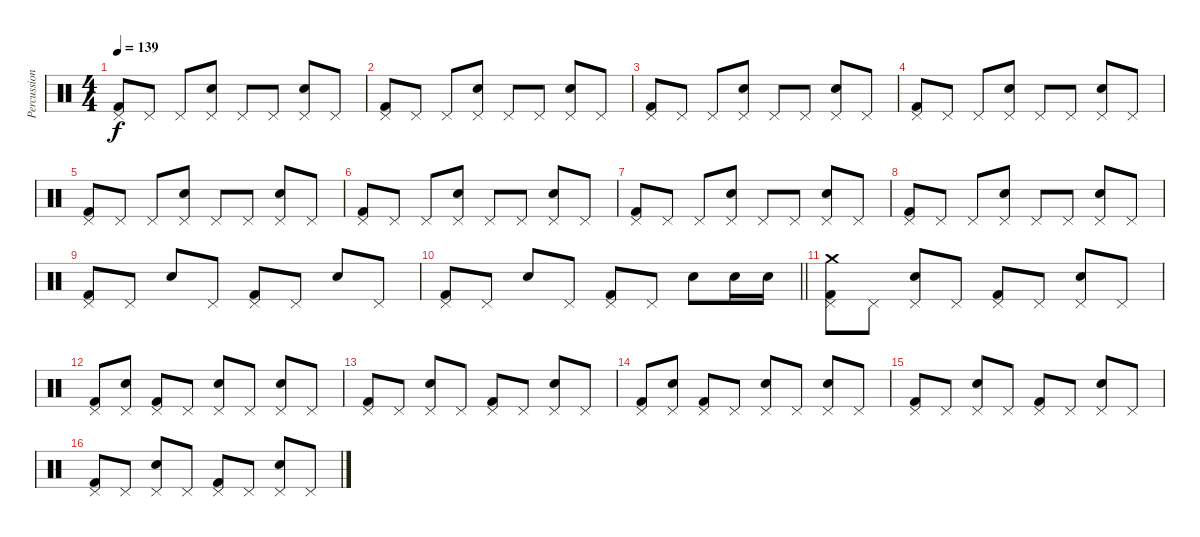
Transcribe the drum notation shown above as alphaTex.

\track ("Percussion" "Percussion") {instrument percussion}
\staff {score}
\articulation defaults
\ts (4 4)
\section ("" "")
\tempo 139
\clef neutral
\ks c
("Pedal Hi-Hat (hit)" "Kick (hit) 2").8{dy f} "Pedal Hi-Hat (hit)".8 "Pedal Hi-Hat (hit)".8 ("Snare (hit) 2" "Pedal Hi-Hat (hit)").8 "Pedal Hi-Hat (hit)".8 "Pedal Hi-Hat (hit)".8 ("Snare (hit) 2" "Pedal Hi-Hat (hit)").8 "Pedal Hi-Hat (hit)".8 |
("Pedal Hi-Hat (hit)" "Kick (hit) 2").8 "Pedal Hi-Hat (hit)".8 "Pedal Hi-Hat (hit)".8 ("Snare (hit) 2" "Pedal Hi-Hat (hit)").8 "Pedal Hi-Hat (hit)".8 "Pedal Hi-Hat (hit)".8 ("Snare (hit) 2" "Pedal Hi-Hat (hit)").8 "Pedal Hi-Hat (hit)".8 |
("Pedal Hi-Hat (hit)" "Kick (hit) 2").8 "Pedal Hi-Hat (hit)".8 "Pedal Hi-Hat (hit)".8 ("Snare (hit) 2" "Pedal Hi-Hat (hit)").8 "Pedal Hi-Hat (hit)".8 "Pedal Hi-Hat (hit)".8 ("Snare (hit) 2" "Pedal Hi-Hat (hit)").8 "Pedal Hi-Hat (hit)".8 |
("Pedal Hi-Hat (hit)" "Kick (hit) 2").8 "Pedal Hi-Hat (hit)".8 "Pedal Hi-Hat (hit)".8 ("Snare (hit) 2" "Pedal Hi-Hat (hit)").8 "Pedal Hi-Hat (hit)".8 "Pedal Hi-Hat (hit)".8 ("Snare (hit) 2" "Pedal Hi-Hat (hit)").8 "Pedal Hi-Hat (hit)".8 |
("Pedal Hi-Hat (hit)" "Kick (hit) 2").8 "Pedal Hi-Hat (hit)".8 "Pedal Hi-Hat (hit)".8 ("Snare (hit) 2" "Pedal Hi-Hat (hit)").8 "Pedal Hi-Hat (hit)".8 "Pedal Hi-Hat (hit)".8 ("Snare (hit) 2" "Pedal Hi-Hat (hit)").8 "Pedal Hi-Hat (hit)".8 |
("Pedal Hi-Hat (hit)" "Kick (hit) 2").8 "Pedal Hi-Hat (hit)".8 "Pedal Hi-Hat (hit)".8 ("Snare (hit) 2" "Pedal Hi-Hat (hit)").8 "Pedal Hi-Hat (hit)".8 "Pedal Hi-Hat (hit)".8 ("Snare (hit) 2" "Pedal Hi-Hat (hit)").8 "Pedal Hi-Hat (hit)".8 |
("Pedal Hi-Hat (hit)" "Kick (hit) 2").8 "Pedal Hi-Hat (hit)".8 "Pedal Hi-Hat (hit)".8 ("Snare (hit) 2" "Pedal Hi-Hat (hit)").8 "Pedal Hi-Hat (hit)".8 "Pedal Hi-Hat (hit)".8 ("Snare (hit) 2" "Pedal Hi-Hat (hit)").8 "Pedal Hi-Hat (hit)".8 |
("Pedal Hi-Hat (hit)" "Kick (hit) 2").8 "Pedal Hi-Hat (hit)".8 "Pedal Hi-Hat (hit)".8 ("Snare (hit) 2" "Pedal Hi-Hat (hit)").8 "Pedal Hi-Hat (hit)".8 "Pedal Hi-Hat (hit)".8 ("Snare (hit) 2" "Pedal Hi-Hat (hit)").8 "Pedal Hi-Hat (hit)".8 |
("Pedal Hi-Hat (hit)" "Kick (hit) 2").8 "Pedal Hi-Hat (hit)".8 "Snare (hit) 2".8 "Pedal Hi-Hat (hit)".8 ("Pedal Hi-Hat (hit)" "Kick (hit) 2").8 "Pedal Hi-Hat (hit)".8 "Snare (hit) 2".8 "Pedal Hi-Hat (hit)".8 |
\barLineRight lightlight
("Pedal Hi-Hat (hit)" "Kick (hit) 2").8 "Pedal Hi-Hat (hit)".8 "Snare (hit) 2".8 "Pedal Hi-Hat (hit)".8 ("Pedal Hi-Hat (hit)" "Kick (hit) 2").8 "Pedal Hi-Hat (hit)".8 "Snare (hit) 2".8 "Snare (hit) 2".16 "Snare (hit) 2".16 |
\section ("" "")
("Crash medium (hit)" "Kick (hit) 2" "Pedal Hi-Hat (hit)").8 "Pedal Hi-Hat (hit)".8 ("Snare (hit) 2" "Pedal Hi-Hat (hit)").8 "Pedal Hi-Hat (hit)".8 ("Kick (hit) 2" "Pedal Hi-Hat (hit)").8 "Pedal Hi-Hat (hit)".8 ("Snare (hit) 2" "Pedal Hi-Hat (hit)").8 "Pedal Hi-Hat (hit)".8 |
("Kick (hit) 2" "Pedal Hi-Hat (hit)").8 ("Snare (hit) 2" "Pedal Hi-Hat (hit)").8 ("Kick (hit) 2" "Pedal Hi-Hat (hit)").8 "Pedal Hi-Hat (hit)".8 ("Snare (hit) 2" "Pedal Hi-Hat (hit)").8 "Pedal Hi-Hat (hit)".8 ("Snare (hit) 2" "Pedal Hi-Hat (hit)").8 "Pedal Hi-Hat (hit)".8 |
("Kick (hit) 2" "Pedal Hi-Hat (hit)").8 "Pedal Hi-Hat (hit)".8 ("Snare (hit) 2" "Pedal Hi-Hat (hit)").8 "Pedal Hi-Hat (hit)".8 ("Kick (hit) 2" "Pedal Hi-Hat (hit)").8 "Pedal Hi-Hat (hit)".8 ("Snare (hit) 2" "Pedal Hi-Hat (hit)").8 "Pedal Hi-Hat (hit)".8 |
("Kick (hit) 2" "Pedal Hi-Hat (hit)").8 ("Snare (hit) 2" "Pedal Hi-Hat (hit)").8 ("Kick (hit) 2" "Pedal Hi-Hat (hit)").8 "Pedal Hi-Hat (hit)".8 ("Snare (hit) 2" "Pedal Hi-Hat (hit)").8 "Pedal Hi-Hat (hit)".8 ("Snare (hit) 2" "Pedal Hi-Hat (hit)").8 "Pedal Hi-Hat (hit)".8 |
("Kick (hit) 2" "Pedal Hi-Hat (hit)").8 "Pedal Hi-Hat (hit)".8 ("Snare (hit) 2" "Pedal Hi-Hat (hit)").8 "Pedal Hi-Hat (hit)".8 ("Kick (hit) 2" "Pedal Hi-Hat (hit)").8 "Pedal Hi-Hat (hit)".8 ("Snare (hit) 2" "Pedal Hi-Hat (hit)").8 "Pedal Hi-Hat (hit)".8 |
("Kick (hit) 2" "Pedal Hi-Hat (hit)").8 "Pedal Hi-Hat (hit)".8 ("Snare (hit) 2" "Pedal Hi-Hat (hit)").8 "Pedal Hi-Hat (hit)".8 ("Kick (hit) 2" "Pedal Hi-Hat (hit)").8 "Pedal Hi-Hat (hit)".8 ("Snare (hit) 2" "Pedal Hi-Hat (hit)").8 "Pedal Hi-Hat (hit)".8
